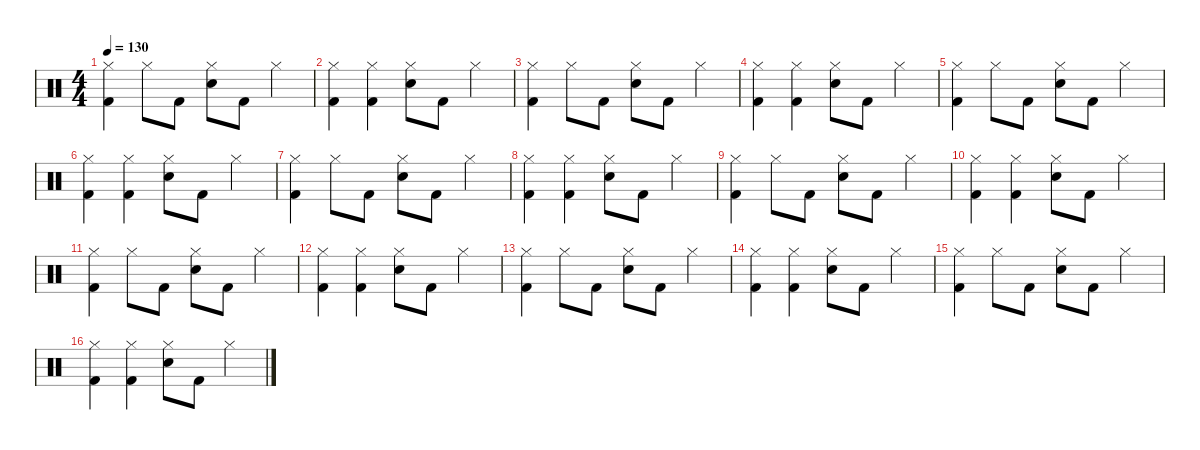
\defaultSystemsLayout 4
\hideDynamics
\bracketExtendMode nobrackets
\singleTrackTrackNamePolicy hidden
\multiTrackTrackNamePolicy hidden
\firstSystemTrackNameMode fullname
\firstSystemTrackNameOrientation horizontal
\otherSystemsTrackNameOrientation horizontal
\track ("Bill Ward" "drm.") {instrument percussion}
\staff {score}
\articulation defaults
\ts (4 4)
\tempo 130
\clef neutral
\ks c
("Hi-Hat (closed)" "Kick (hit) 2").4{dy f beam Down} "Hi-Hat (closed)".8{beam Down} "Kick (hit) 2".8{beam Down} ("Hi-Hat (closed)" "Snare (hit) 2").8{beam Down} "Kick (hit) 2".8{beam Down} "Hi-Hat (closed)".4{beam Down} |
("Hi-Hat (closed)" "Kick (hit) 2").4{beam Down} ("Hi-Hat (closed)" "Kick (hit) 2").4{beam Down} ("Hi-Hat (closed)" "Snare (hit) 2").8{beam Down} "Kick (hit) 2".8{beam Down} "Hi-Hat (closed)".4{beam Down} |
("Hi-Hat (closed)" "Kick (hit) 2").4{beam Down} "Hi-Hat (closed)".8{beam Down} "Kick (hit) 2".8{beam Down} ("Hi-Hat (closed)" "Snare (hit) 2").8{beam Down} "Kick (hit) 2".8{beam Down} "Hi-Hat (closed)".4{beam Down} |
("Hi-Hat (closed)" "Kick (hit) 2").4{beam Down} ("Hi-Hat (closed)" "Kick (hit) 2").4{beam Down} ("Hi-Hat (closed)" "Snare (hit) 2").8{beam Down} "Kick (hit) 2".8{beam Down} "Hi-Hat (closed)".4{beam Down} |
("Hi-Hat (closed)" "Kick (hit) 2").4{beam Down} "Hi-Hat (closed)".8{beam Down} "Kick (hit) 2".8{beam Down} ("Hi-Hat (closed)" "Snare (hit) 2").8{beam Down} "Kick (hit) 2".8{beam Down} "Hi-Hat (closed)".4{beam Down} |
("Hi-Hat (closed)" "Kick (hit) 2").4{beam Down} ("Hi-Hat (closed)" "Kick (hit) 2").4{beam Down} ("Hi-Hat (closed)" "Snare (hit) 2").8{beam Down} "Kick (hit) 2".8{beam Down} "Hi-Hat (closed)".4{beam Down} |
("Hi-Hat (closed)" "Kick (hit) 2").4{beam Down} "Hi-Hat (closed)".8{beam Down} "Kick (hit) 2".8{beam Down} ("Hi-Hat (closed)" "Snare (hit) 2").8{beam Down} "Kick (hit) 2".8{beam Down} "Hi-Hat (closed)".4{beam Down} |
("Hi-Hat (closed)" "Kick (hit) 2").4{beam Down} ("Hi-Hat (closed)" "Kick (hit) 2").4{beam Down} ("Hi-Hat (closed)" "Snare (hit) 2").8{beam Down} "Kick (hit) 2".8{beam Down} "Hi-Hat (closed)".4{beam Down} |
("Hi-Hat (closed)" "Kick (hit) 2").4{beam Down} "Hi-Hat (closed)".8{beam Down} "Kick (hit) 2".8{beam Down} ("Hi-Hat (closed)" "Snare (hit) 2").8{beam Down} "Kick (hit) 2".8{beam Down} "Hi-Hat (closed)".4{beam Down} |
("Hi-Hat (closed)" "Kick (hit) 2").4{beam Down} ("Hi-Hat (closed)" "Kick (hit) 2").4{beam Down} ("Hi-Hat (closed)" "Snare (hit) 2").8{beam Down} "Kick (hit) 2".8{beam Down} "Hi-Hat (closed)".4{beam Down} |
("Hi-Hat (closed)" "Kick (hit) 2").4{beam Down} "Hi-Hat (closed)".8{beam Down} "Kick (hit) 2".8{beam Down} ("Hi-Hat (closed)" "Snare (hit) 2").8{beam Down} "Kick (hit) 2".8{beam Down} "Hi-Hat (closed)".4{beam Down} |
("Hi-Hat (closed)" "Kick (hit) 2").4{beam Down} ("Hi-Hat (closed)" "Kick (hit) 2").4{beam Down} ("Hi-Hat (closed)" "Snare (hit) 2").8{beam Down} "Kick (hit) 2".8{beam Down} "Hi-Hat (closed)".4{beam Down} |
("Hi-Hat (closed)" "Kick (hit) 2").4{beam Down} "Hi-Hat (closed)".8{beam Down} "Kick (hit) 2".8{beam Down} ("Hi-Hat (closed)" "Snare (hit) 2").8{beam Down} "Kick (hit) 2".8{beam Down} "Hi-Hat (closed)".4{beam Down} |
("Hi-Hat (closed)" "Kick (hit) 2").4{beam Down} ("Hi-Hat (closed)" "Kick (hit) 2").4{beam Down} ("Hi-Hat (closed)" "Snare (hit) 2").8{beam Down} "Kick (hit) 2".8{beam Down} "Hi-Hat (closed)".4{beam Down} |
("Hi-Hat (closed)" "Kick (hit) 2").4{beam Down} "Hi-Hat (closed)".8{beam Down} "Kick (hit) 2".8{beam Down} ("Hi-Hat (closed)" "Snare (hit) 2").8{beam Down} "Kick (hit) 2".8{beam Down} "Hi-Hat (closed)".4{beam Down} |
("Hi-Hat (closed)" "Kick (hit) 2").4{beam Down} ("Hi-Hat (closed)" "Kick (hit) 2").4{beam Down} ("Hi-Hat (closed)" "Snare (hit) 2").8{beam Down} "Kick (hit) 2".8{beam Down} "Hi-Hat (closed)".4{beam Down}
